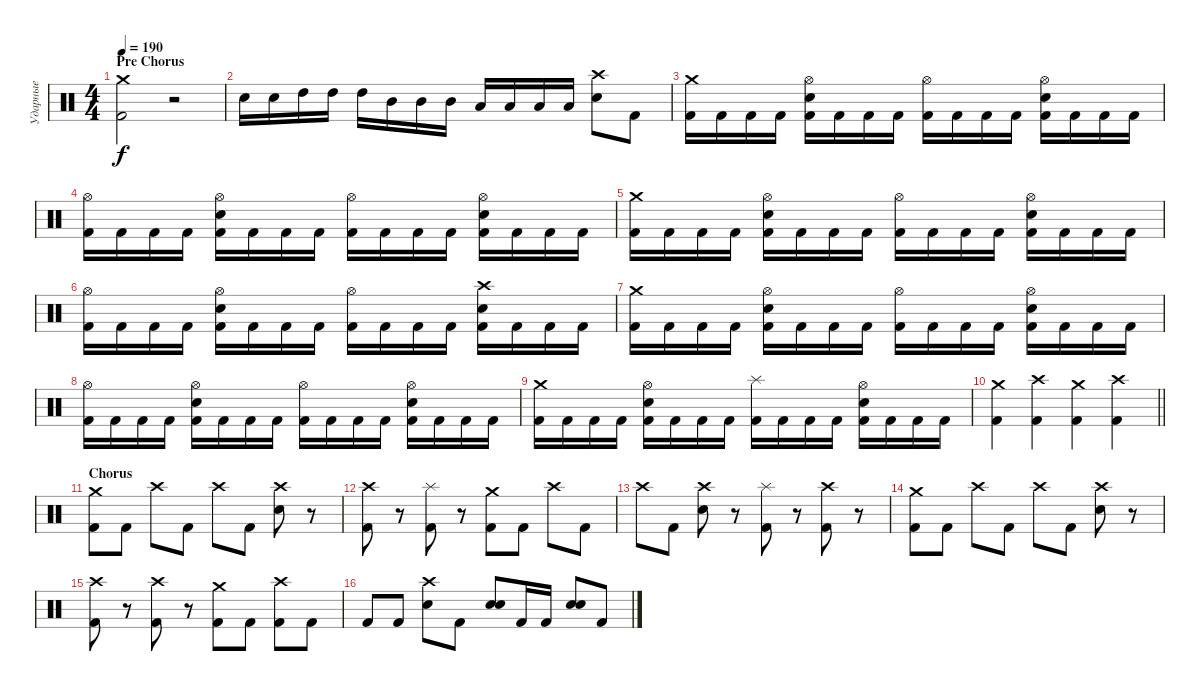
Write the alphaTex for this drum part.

\track ("Ударные" "Ударные") {instrument percussion}
\staff {score}
\articulation defaults
\ts (4 4)
\section ("" "Pre Chorus")
\tempo 190
\clef neutral
\ks c
("Crash medium (hit)" "Kick (hit) 2").2{dy f} r.2 |
"Electric Snare (hit)".16 "Electric Snare (hit)".16 "High Tom (hit)".16 "High Tom (hit)".16 "High Tom (hit)".16 "Mid Tom (hit)".16 "Mid Tom (hit)".16 "Mid Tom (hit)".16 "Low Tom (hit)".16 "Low Tom (hit)".16 "Low Tom (hit)".16 "Low Tom (hit)".16 ("Crash high (hit)" "Electric Snare (hit)").8 "Kick (hit) 2".8 |
("Crash medium (hit)" "Kick (hit) 2").16 "Kick (hit) 2".16 "Kick (hit) 2".16 "Kick (hit) 2".16 ("Hi-Hat (open)" "Electric Snare (hit)" "Kick (hit) 2").16 "Kick (hit) 2".16 "Kick (hit) 2".16 "Kick (hit) 2".16 ("Hi-Hat (open)" "Kick (hit) 2").16 "Kick (hit) 2".16 "Kick (hit) 2".16 "Kick (hit) 2".16 ("Hi-Hat (open)" "Electric Snare (hit)" "Kick (hit) 2").16 "Kick (hit) 2".16 "Kick (hit) 2".16 "Kick (hit) 2".16 |
("Hi-Hat (open)" "Kick (hit) 2").16 "Kick (hit) 2".16 "Kick (hit) 2".16 "Kick (hit) 2".16 ("Hi-Hat (open)" "Electric Snare (hit)" "Kick (hit) 2").16 "Kick (hit) 2".16 "Kick (hit) 2".16 "Kick (hit) 2".16 ("Hi-Hat (open)" "Kick (hit) 2").16 "Kick (hit) 2".16 "Kick (hit) 2".16 "Kick (hit) 2".16 ("Hi-Hat (open)" "Electric Snare (hit)" "Kick (hit) 2").16 "Kick (hit) 2".16 "Kick (hit) 2".16 "Kick (hit) 2".16 |
("Crash medium (hit)" "Kick (hit) 2").16 "Kick (hit) 2".16 "Kick (hit) 2".16 "Kick (hit) 2".16 ("Hi-Hat (open)" "Electric Snare (hit)" "Kick (hit) 2").16 "Kick (hit) 2".16 "Kick (hit) 2".16 "Kick (hit) 2".16 ("Hi-Hat (open)" "Kick (hit) 2").16 "Kick (hit) 2".16 "Kick (hit) 2".16 "Kick (hit) 2".16 ("Hi-Hat (open)" "Electric Snare (hit)" "Kick (hit) 2").16 "Kick (hit) 2".16 "Kick (hit) 2".16 "Kick (hit) 2".16 |
("Hi-Hat (open)" "Kick (hit) 2").16 "Kick (hit) 2".16 "Kick (hit) 2".16 "Kick (hit) 2".16 ("Hi-Hat (open)" "Electric Snare (hit)" "Kick (hit) 2").16 "Kick (hit) 2".16 "Kick (hit) 2".16 "Kick (hit) 2".16 ("Hi-Hat (open)" "Kick (hit) 2").16 "Kick (hit) 2".16 "Kick (hit) 2".16 "Kick (hit) 2".16 ("Crash high (hit)" "Electric Snare (hit)" "Kick (hit) 2").16 "Kick (hit) 2".16 "Kick (hit) 2".16 "Kick (hit) 2".16 |
("Crash medium (hit)" "Kick (hit) 2").16 "Kick (hit) 2".16 "Kick (hit) 2".16 "Kick (hit) 2".16 ("Hi-Hat (open)" "Electric Snare (hit)" "Kick (hit) 2").16 "Kick (hit) 2".16 "Kick (hit) 2".16 "Kick (hit) 2".16 ("Hi-Hat (open)" "Kick (hit) 2").16 "Kick (hit) 2".16 "Kick (hit) 2".16 "Kick (hit) 2".16 ("Hi-Hat (open)" "Electric Snare (hit)" "Kick (hit) 2").16 "Kick (hit) 2".16 "Kick (hit) 2".16 "Kick (hit) 2".16 |
("Hi-Hat (open)" "Kick (hit) 2").16 "Kick (hit) 2".16 "Kick (hit) 2".16 "Kick (hit) 2".16 ("Hi-Hat (open)" "Electric Snare (hit)" "Kick (hit) 2").16 "Kick (hit) 2".16 "Kick (hit) 2".16 "Kick (hit) 2".16 ("Hi-Hat (open)" "Kick (hit) 2").16 "Kick (hit) 2".16 "Kick (hit) 2".16 "Kick (hit) 2".16 ("Hi-Hat (open)" "Electric Snare (hit)" "Kick (hit) 2").16 "Kick (hit) 2".16 "Kick (hit) 2".16 "Kick (hit) 2".16 |
("Crash medium (hit)" "Kick (hit) 2").16 "Kick (hit) 2".16 "Kick (hit) 2".16 "Kick (hit) 2".16 ("Hi-Hat (open)" "Electric Snare (hit)" "Kick (hit) 2").16 "Kick (hit) 2".16 "Kick (hit) 2".16 "Kick (hit) 2".16 ("Splash (hit)" "Kick (hit) 2").16 "Kick (hit) 2".16 "Kick (hit) 2".16 "Kick (hit) 2".16 ("Hi-Hat (open)" "Electric Snare (hit)" "Kick (hit) 2").16 "Kick (hit) 2".16 "Kick (hit) 2".16 "Kick (hit) 2".16 |
\barLineRight lightlight
("Crash medium (hit)" "Kick (hit) 2").4 ("Crash high (hit)" "Kick (hit) 2").4 ("Crash medium (hit)" "Kick (hit) 2").4 ("Crash high (hit)" "Kick (hit) 2").4 |
\section ("" "Chorus")
("Crash medium (hit)" "Kick (hit) 2").8 "Kick (hit) 2".8 "Crash high (hit)".8 "Kick (hit) 2".8 "Crash high (hit)".8 "Kick (hit) 2".8 ("Crash high (hit)" "Electric Snare (hit)").8 r.8 |
("Crash high (hit)" "Kick (hit) 2").8 r.8 ("Splash (hit)" "Kick (hit) 2").8 r.8 ("Crash medium (hit)" "Kick (hit) 2").8 "Kick (hit) 2".8 "Crash high (hit)".8 "Kick (hit) 2".8 |
"Crash high (hit)".8 "Kick (hit) 2".8 ("Crash high (hit)" "Electric Snare (hit)").8 r.8 ("Splash (hit)" "Kick (hit) 2").8 r.8 ("Crash high (hit)" "Kick (hit) 2").8 r.8 |
("Crash medium (hit)" "Kick (hit) 2").8 "Kick (hit) 2".8 "Crash high (hit)".8 "Kick (hit) 2".8 "Crash high (hit)".8 "Kick (hit) 2".8 ("Crash high (hit)" "Electric Snare (hit)").8 r.8 |
("Crash high (hit)" "Kick (hit) 2").8 r.8 ("Crash high (hit)" "Kick (hit) 2").8 r.8 ("Crash medium (hit)" "Kick (hit) 2").8 "Kick (hit) 2".8 ("Crash high (hit)" "Kick (hit) 2").8 "Kick (hit) 2".8 |
"Kick (hit) 2".8 "Kick (hit) 2".8 ("Crash high (hit)" "Electric Snare (hit)").8 "Kick (hit) 2".8 ("Electric Snare (hit)" "Electric Snare (hit)").8 "Kick (hit) 2".16 "Kick (hit) 2".16 ("Electric Snare (hit)" "Electric Snare (hit)").8 "Kick (hit) 2".8
